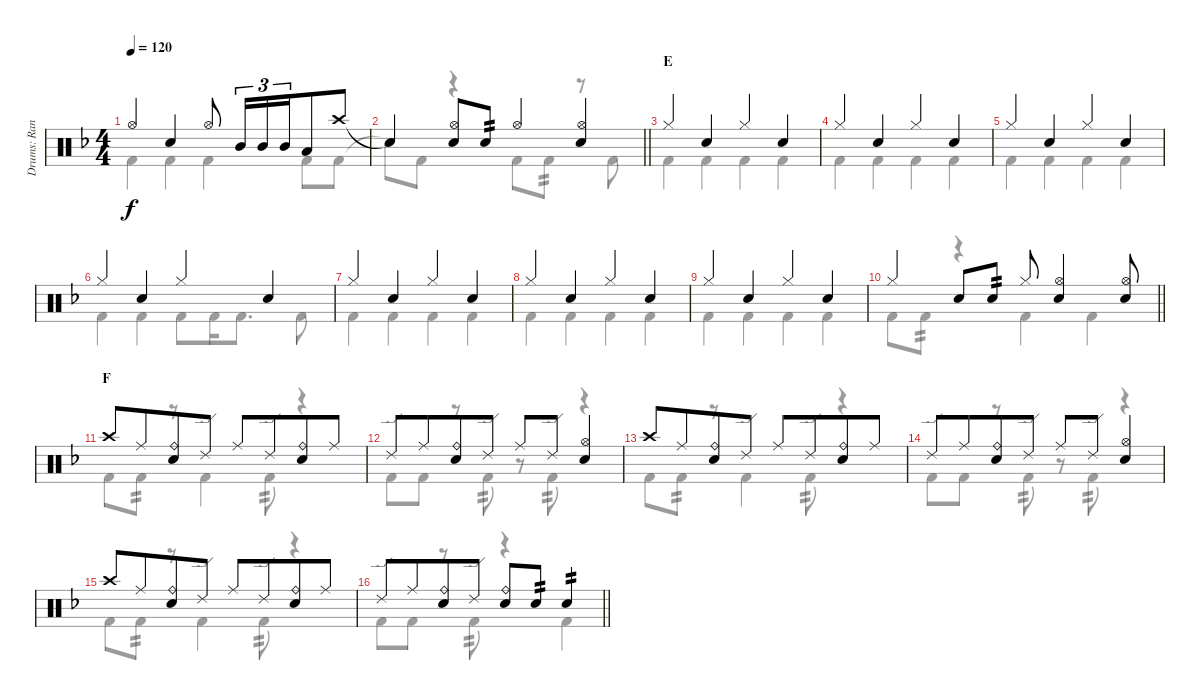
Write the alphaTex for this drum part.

\track ("Drums: Randy" "Drums: Ran") {instrument percussion}
\staff {score}
\articulation defaults
\voice
\ts (4 4)
\tempo 120
\clef neutral
\ks f "Hi-Hat (open)".4{dy f} "Snare (hit) 2".4 "Hi-Hat (open)".8 "Mid Tom (hit)".16{tu (3 2)} "Mid Tom (hit)".16{tu (3 2)} "Mid Tom (hit)".16{tu (3 2) beam merge} "Low Tom (hit)".8 "Crash high (hit)".8
|
\barLineRight lightlight "Snare (hit)"{t}.4
("Hi-Hat (open)" "Snare (hit) 2").8 "Snare (hit) 2".8{tp 2} "Hi-Hat (open)".4 ("Hi-Hat (open)" "Snare (hit) 2").4 |
\section ("" "E")
"Hi-Hat (closed)".4 "Snare (hit) 2".4 "Hi-Hat (closed)".4 "Snare (hit) 2".4 |
"Hi-Hat (closed)".4 "Snare (hit) 2".4 "Hi-Hat (closed)".4 "Snare (hit) 2".4 |
"Hi-Hat (closed)".4 "Snare (hit) 2".4 "Hi-Hat (closed)".4 "Snare (hit) 2".4 |
"Hi-Hat (closed)".4 "Snare (hit) 2".4 "Hi-Hat (closed)".4 "Snare (hit) 2".4 |
"Hi-Hat (closed)".4 "Snare (hit) 2".4 "Hi-Hat (closed)".4 "Snare (hit) 2".4 |
"Hi-Hat (closed)".4 "Snare (hit) 2".4 "Hi-Hat (closed)".4 "Snare (hit) 2".4 |
"Hi-Hat (closed)".4 "Snare (hit) 2".4 "Hi-Hat (closed)".4 "Snare (hit) 2".4 |
\barLineRight lightlight "Hi-Hat (closed)".4 "Snare (hit) 2".8 "Snare (hit) 2".8{tp 2} "Hi-Hat (closed)".8
("Hi-Hat (open)" "Snare (hit) 2").4 ("Hi-Hat (open)" "Snare (hit) 2").8 |
\section ("" "F")
"Crash high (hit)".8 "Ride (middle)".8{beam merge} ("Ride (bell)" "Snare (hit) 2").8 "Ride (edge) 2".8 "Ride (middle)".8 "Ride (edge) 2".8{beam merge} ("Ride (bell)" "Snare (hit) 2").8 "Ride (middle)".8 |
"Ride (edge) 2".8 "Ride (middle)".8{beam merge} ("Ride (bell)" "Snare (hit) 2").8 "Ride (edge) 2".8 "Ride (middle)".8 "Ride (edge) 2".8{beam merge} ("Hi-Hat (open)" "Snare (hit) 2").4 |
"Crash high (hit)".8 "Ride (middle)".8{beam merge} ("Ride (bell)" "Snare (hit) 2").8 "Ride (edge) 2".8 "Ride (middle)".8 "Ride (edge) 2".8{beam merge} ("Ride (bell)" "Snare (hit) 2").8 "Ride (middle)".8 |
"Ride (edge) 2".8 "Ride (middle)".8{beam merge} ("Ride (bell)" "Snare (hit) 2").8 "Ride (edge) 2".8 "Ride (middle)".8 "Ride (edge) 2".8{beam merge} ("Hi-Hat (open)" "Snare (hit) 2").4 |
"Crash high (hit)".8 "Ride (middle)".8{beam merge} ("Ride (bell)" "Snare (hit) 2").8 "Ride (edge) 2".8 "Ride (middle)".8 "Ride (edge) 2".8{beam merge} ("Ride (bell)" "Snare (hit) 2").8 "Ride (middle)".8 |
\barLineRight lightlight "Ride (edge) 2".8 "Ride (middle)".8{beam merge}
("Ride (bell)" "Snare (hit) 2").8 "Ride (edge) 2".8 ("Ride (bell)" "Snare (hit) 2").8 "Snare (hit) 2".8{tp 2 beam merge} "Snare (hit) 2".4{tp 2}
\voice
\clef neutral
\ottava regular
\simile none
\ks f "Kick (hit) 2".4{dy f} "Kick (hit) 2".4 "Kick (hit) 2".4 "Kick (hit) 2".8 "Kick (hit) 2".8
|
\barLineRight lightlight "Snare (hit)"{t}.8 "Kick (hit) 2".8
r.4 "Kick (hit) 2".8 "Kick (hit) 2".8{tp 2} r.8 "Kick (hit) 2".8 |
"Kick (hit) 2".4 "Kick (hit) 2".4 "Kick (hit) 2".4 "Kick (hit) 2".4 |
"Kick (hit) 2".4 "Kick (hit) 2".4 "Kick (hit) 2".4 "Kick (hit) 2".4 |
"Kick (hit) 2".4 "Kick (hit) 2".4 "Kick (hit) 2".4 "Kick (hit) 2".4 |
"Kick (hit) 2".4 "Kick (hit) 2".4 "Kick (hit) 2".8 "Kick (hit) 2".16 "Kick (hit) 2".8{d} "Kick (hit) 2".8 |
"Kick (hit) 2".4 "Kick (hit) 2".4 "Kick (hit) 2".4 "Kick (hit) 2".4 |
"Kick (hit) 2".4 "Kick (hit) 2".4 "Kick (hit) 2".4 "Kick (hit) 2".4 |
"Kick (hit) 2".4 "Kick (hit) 2".4 "Kick (hit) 2".4 "Kick (hit) 2".4 |
\barLineRight lightlight "Kick (hit) 2".8 "Kick (hit) 2".8{tp 2}
r.4 "Kick (hit) 2".4 "Kick (hit) 2".4 |
"Kick (hit) 2".8 "Kick (hit) 2".8{tp 2} r.8 "Kick (hit) 2".4 "Kick (hit) 2".8{tp 2} r.4 |
"Kick (hit) 2".8 "Kick (hit) 2".8 r.8 "Kick (hit) 2".8{tp 2} r.8 "Kick (hit) 2".8{tp 2} r.4 |
"Kick (hit) 2".8 "Kick (hit) 2".8{tp 2} r.8 "Kick (hit) 2".4 "Kick (hit) 2".8{tp 2} r.4 |
"Kick (hit) 2".8 "Kick (hit) 2".8 r.8 "Kick (hit) 2".8{tp 2} r.8 "Kick (hit) 2".8{tp 2} r.4 |
"Kick (hit) 2".8 "Kick (hit) 2".8{tp 2} r.8 "Kick (hit) 2".4 "Kick (hit) 2".8{tp 2} r.4 |
\barLineRight lightlight "Kick (hit) 2".8 "Kick (hit) 2".8
r.8 "Kick (hit) 2".8{tp 2} r.4 "Kick (hit) 2".4
